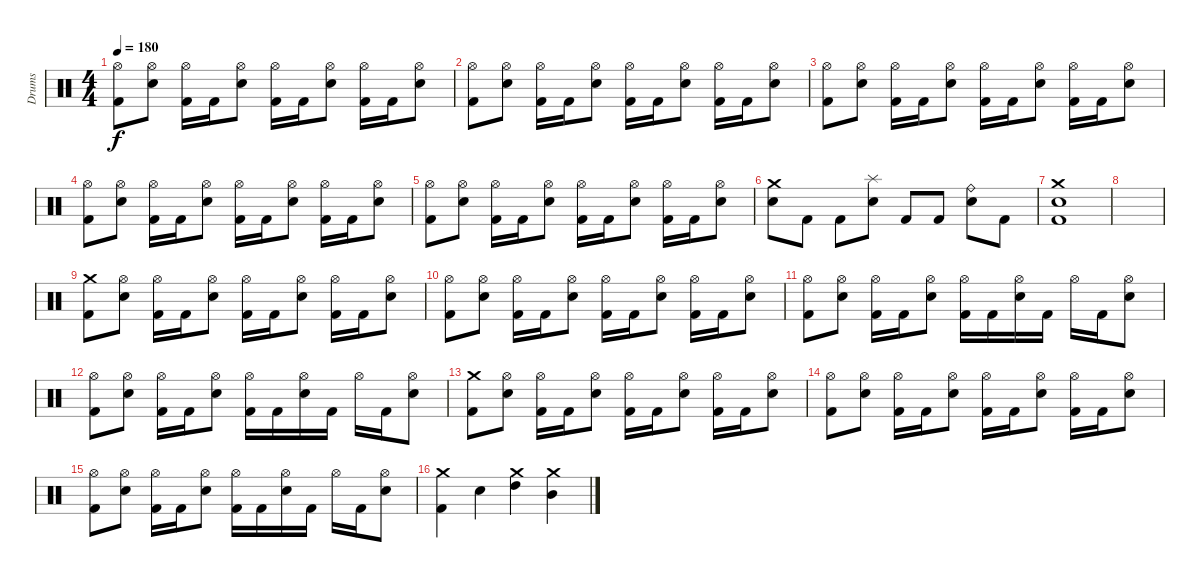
\track ("Drums" "Drums") {instrument percussion}
\staff {score}
\articulation defaults
\ts (4 4)
\tempo 180
\clef neutral
\ks c
("Hi-Hat (open)" "Kick (hit) 2").8{dy f} ("Hi-Hat (open)" "Electric Snare (hit)").8 ("Hi-Hat (open)" "Kick (hit) 2").16 "Kick (hit) 2".16 ("Hi-Hat (open)" "Electric Snare (hit)").8 ("Hi-Hat (open)" "Kick (hit) 2").16 "Kick (hit) 2".16 ("Hi-Hat (open)" "Electric Snare (hit)").8 ("Hi-Hat (open)" "Kick (hit) 2").16 "Kick (hit) 2".16 ("Hi-Hat (open)" "Electric Snare (hit)").8 |
("Hi-Hat (open)" "Kick (hit) 2").8 ("Hi-Hat (open)" "Electric Snare (hit)").8 ("Hi-Hat (open)" "Kick (hit) 2").16 "Kick (hit) 2".16 ("Hi-Hat (open)" "Electric Snare (hit)").8 ("Hi-Hat (open)" "Kick (hit) 2").16 "Kick (hit) 2".16 ("Hi-Hat (open)" "Electric Snare (hit)").8 ("Hi-Hat (open)" "Kick (hit) 2").16 "Kick (hit) 2".16 ("Hi-Hat (open)" "Electric Snare (hit)").8 |
("Hi-Hat (open)" "Kick (hit) 2").8 ("Hi-Hat (open)" "Electric Snare (hit)").8 ("Hi-Hat (open)" "Kick (hit) 2").16 "Kick (hit) 2".16 ("Hi-Hat (open)" "Electric Snare (hit)").8 ("Hi-Hat (open)" "Kick (hit) 2").16 "Kick (hit) 2".16 ("Hi-Hat (open)" "Electric Snare (hit)").8 ("Hi-Hat (open)" "Kick (hit) 2").16 "Kick (hit) 2".16 ("Hi-Hat (open)" "Electric Snare (hit)").8 |
("Hi-Hat (open)" "Kick (hit) 2").8 ("Hi-Hat (open)" "Electric Snare (hit)").8 ("Hi-Hat (open)" "Kick (hit) 2").16 "Kick (hit) 2".16 ("Hi-Hat (open)" "Electric Snare (hit)").8 ("Hi-Hat (open)" "Kick (hit) 2").16 "Kick (hit) 2".16 ("Hi-Hat (open)" "Electric Snare (hit)").8 ("Hi-Hat (open)" "Kick (hit) 2").16 "Kick (hit) 2".16 ("Hi-Hat (open)" "Electric Snare (hit)").8 |
("Hi-Hat (open)" "Kick (hit) 2").8 ("Hi-Hat (open)" "Electric Snare (hit)").8 ("Hi-Hat (open)" "Kick (hit) 2").16 "Kick (hit) 2".16 ("Hi-Hat (open)" "Electric Snare (hit)").8 ("Hi-Hat (open)" "Kick (hit) 2").16 "Kick (hit) 2".16 ("Hi-Hat (open)" "Electric Snare (hit)").8 ("Hi-Hat (open)" "Kick (hit) 2").16 "Kick (hit) 2".16 ("Hi-Hat (open)" "Electric Snare (hit)").8 |
("Crash medium (hit)" "Electric Snare (hit)").8 "Kick (hit) 2".8 "Kick (hit) 2".8 ("Splash (hit)" "Electric Snare (hit)").8 "Kick (hit) 2".8 "Kick (hit) 2".8 ("Ride (bell)" "Electric Snare (hit)").8 "Kick (hit) 2".8 |
("Crash medium (hit)" "Electric Snare (hit)" "Kick (hit) 2").1 |
|
("Crash medium (hit)" "Kick (hit) 2").8 ("Hi-Hat (open)" "Electric Snare (hit)").8 ("Hi-Hat (open)" "Kick (hit) 2").16 "Kick (hit) 2".16 ("Hi-Hat (open)" "Electric Snare (hit)").8 ("Hi-Hat (open)" "Kick (hit) 2").16 "Kick (hit) 2".16 ("Hi-Hat (open)" "Electric Snare (hit)").8 ("Hi-Hat (open)" "Kick (hit) 2").16 "Kick (hit) 2".16 ("Hi-Hat (open)" "Electric Snare (hit)").8 |
("Hi-Hat (open)" "Kick (hit) 2").8 ("Hi-Hat (open)" "Electric Snare (hit)").8 ("Hi-Hat (open)" "Kick (hit) 2").16 "Kick (hit) 2".16 ("Hi-Hat (open)" "Electric Snare (hit)").8 ("Hi-Hat (open)" "Kick (hit) 2").16 "Kick (hit) 2".16 ("Hi-Hat (open)" "Electric Snare (hit)").8 ("Hi-Hat (open)" "Kick (hit) 2").16 "Kick (hit) 2".16 ("Hi-Hat (open)" "Electric Snare (hit)").8 |
("Hi-Hat (open)" "Kick (hit) 2").8 ("Hi-Hat (open)" "Electric Snare (hit)").8 ("Hi-Hat (open)" "Kick (hit) 2").16 "Kick (hit) 2".16 ("Hi-Hat (open)" "Electric Snare (hit)").8 ("Hi-Hat (open)" "Kick (hit) 2").16 "Kick (hit) 2".16 ("Hi-Hat (open)" "Electric Snare (hit)").16 "Kick (hit) 2".16 "Hi-Hat (open)".16 "Kick (hit) 2".16 ("Hi-Hat (open)" "Electric Snare (hit)").8 |
("Hi-Hat (open)" "Kick (hit) 2").8 ("Hi-Hat (open)" "Electric Snare (hit)").8 ("Hi-Hat (open)" "Kick (hit) 2").16 "Kick (hit) 2".16 ("Hi-Hat (open)" "Electric Snare (hit)").8 ("Hi-Hat (open)" "Kick (hit) 2").16 "Kick (hit) 2".16 ("Hi-Hat (open)" "Electric Snare (hit)").16 "Kick (hit) 2".16 "Hi-Hat (open)".16 "Kick (hit) 2".16 ("Hi-Hat (open)" "Electric Snare (hit)").8 |
("Crash medium (hit)" "Kick (hit) 2").8 ("Hi-Hat (open)" "Electric Snare (hit)").8 ("Hi-Hat (open)" "Kick (hit) 2").16 "Kick (hit) 2".16 ("Hi-Hat (open)" "Electric Snare (hit)").8 ("Hi-Hat (open)" "Kick (hit) 2").16 "Kick (hit) 2".16 ("Hi-Hat (open)" "Electric Snare (hit)").8 ("Hi-Hat (open)" "Kick (hit) 2").16 "Kick (hit) 2".16 ("Hi-Hat (open)" "Electric Snare (hit)").8 |
("Hi-Hat (open)" "Kick (hit) 2").8 ("Hi-Hat (open)" "Electric Snare (hit)").8 ("Hi-Hat (open)" "Kick (hit) 2").16 "Kick (hit) 2".16 ("Hi-Hat (open)" "Electric Snare (hit)").8 ("Hi-Hat (open)" "Kick (hit) 2").16 "Kick (hit) 2".16 ("Hi-Hat (open)" "Electric Snare (hit)").8 ("Hi-Hat (open)" "Kick (hit) 2").16 "Kick (hit) 2".16 ("Hi-Hat (open)" "Electric Snare (hit)").8 |
("Hi-Hat (open)" "Kick (hit) 2").8 ("Hi-Hat (open)" "Electric Snare (hit)").8 ("Hi-Hat (open)" "Kick (hit) 2").16 "Kick (hit) 2".16 ("Hi-Hat (open)" "Electric Snare (hit)").8 ("Hi-Hat (open)" "Kick (hit) 2").16 "Kick (hit) 2".16 ("Hi-Hat (open)" "Electric Snare (hit)").16 "Kick (hit) 2".16 "Hi-Hat (open)".16 "Kick (hit) 2".16 ("Hi-Hat (open)" "Electric Snare (hit)").8 |
("Crash medium (hit)" "Kick (hit) 2").4 "Electric Snare (hit)".4 ("Crash medium (hit)" "High Tom (hit)").4 ("Crash medium (hit)" "Mid Tom (hit)").4
